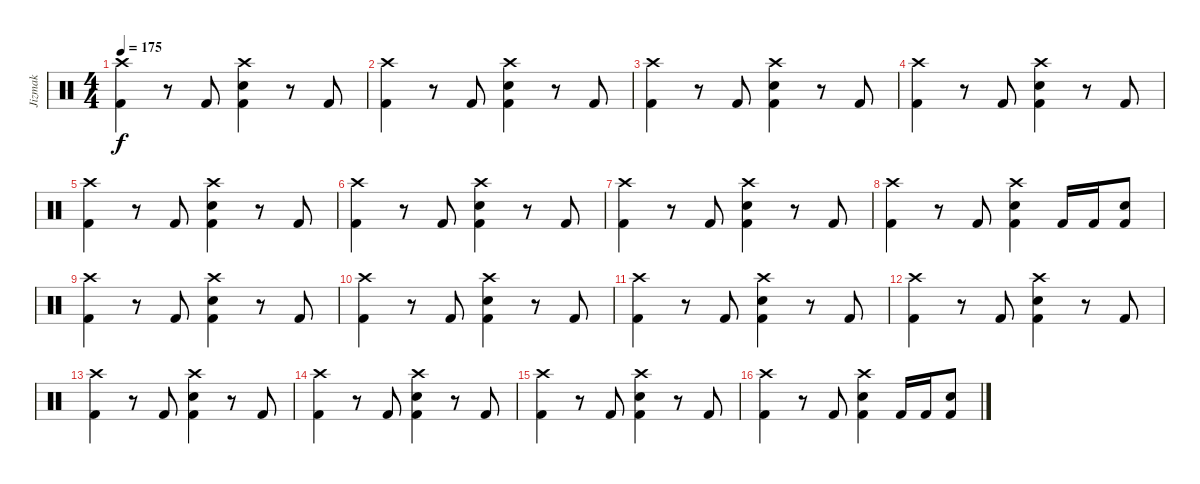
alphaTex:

\track ("Jizmak" "Jizmak") {instrument percussion}
\staff {score}
\articulation defaults
\ts (4 4)
\tempo 175
\clef neutral
\ks c
("Crash high (hit)" "Kick (hit) 2").4{dy f} r.8 "Kick (hit) 2".8 ("Crash high (hit)" "Snare (hit) 2" "Kick (hit) 2").4 r.8 "Kick (hit) 2".8 |
("Crash high (hit)" "Kick (hit) 2").4 r.8 "Kick (hit) 2".8 ("Crash high (hit)" "Snare (hit) 2" "Kick (hit) 2").4 r.8 "Kick (hit) 2".8 |
("Crash high (hit)" "Kick (hit) 2").4 r.8 "Kick (hit) 2".8 ("Crash high (hit)" "Snare (hit) 2" "Kick (hit) 2").4 r.8 "Kick (hit) 2".8 |
("Crash high (hit)" "Kick (hit) 2").4 r.8 "Kick (hit) 2".8 ("Crash high (hit)" "Snare (hit) 2" "Kick (hit) 2").4 r.8 "Kick (hit) 2".8 |
("Crash high (hit)" "Kick (hit) 2").4 r.8 "Kick (hit) 2".8 ("Crash high (hit)" "Snare (hit) 2" "Kick (hit) 2").4 r.8 "Kick (hit) 2".8 |
("Crash high (hit)" "Kick (hit) 2").4 r.8 "Kick (hit) 2".8 ("Crash high (hit)" "Snare (hit) 2" "Kick (hit) 2").4 r.8 "Kick (hit) 2".8 |
("Crash high (hit)" "Kick (hit) 2").4 r.8 "Kick (hit) 2".8 ("Crash high (hit)" "Snare (hit) 2" "Kick (hit) 2").4 r.8 "Kick (hit) 2".8 |
("Crash high (hit)" "Kick (hit) 2").4 r.8 "Kick (hit) 2".8 ("Crash high (hit)" "Snare (hit) 2" "Kick (hit) 2").4 "Kick (hit) 2".16 "Kick (hit) 2".16 ("Snare (hit) 2" "Kick (hit) 2").8 |
("Crash high (hit)" "Kick (hit) 2").4 r.8 "Kick (hit) 2".8 ("Crash high (hit)" "Snare (hit) 2" "Kick (hit) 2").4 r.8 "Kick (hit) 2".8 |
("Crash high (hit)" "Kick (hit) 2").4 r.8 "Kick (hit) 2".8 ("Crash high (hit)" "Snare (hit) 2" "Kick (hit) 2").4 r.8 "Kick (hit) 2".8 |
("Crash high (hit)" "Kick (hit) 2").4 r.8 "Kick (hit) 2".8 ("Crash high (hit)" "Snare (hit) 2" "Kick (hit) 2").4 r.8 "Kick (hit) 2".8 |
("Crash high (hit)" "Kick (hit) 2").4 r.8 "Kick (hit) 2".8 ("Crash high (hit)" "Snare (hit) 2" "Kick (hit) 2").4 r.8 "Kick (hit) 2".8 |
("Crash high (hit)" "Kick (hit) 2").4 r.8 "Kick (hit) 2".8 ("Crash high (hit)" "Snare (hit) 2" "Kick (hit) 2").4 r.8 "Kick (hit) 2".8 |
("Crash high (hit)" "Kick (hit) 2").4 r.8 "Kick (hit) 2".8 ("Crash high (hit)" "Snare (hit) 2" "Kick (hit) 2").4 r.8 "Kick (hit) 2".8 |
("Crash high (hit)" "Kick (hit) 2").4 r.8 "Kick (hit) 2".8 ("Crash high (hit)" "Snare (hit) 2" "Kick (hit) 2").4 r.8 "Kick (hit) 2".8 |
("Crash high (hit)" "Kick (hit) 2").4 r.8 "Kick (hit) 2".8 ("Crash high (hit)" "Snare (hit) 2" "Kick (hit) 2").4 "Kick (hit) 2".16 "Kick (hit) 2".16 ("Snare (hit) 2" "Kick (hit) 2").8
